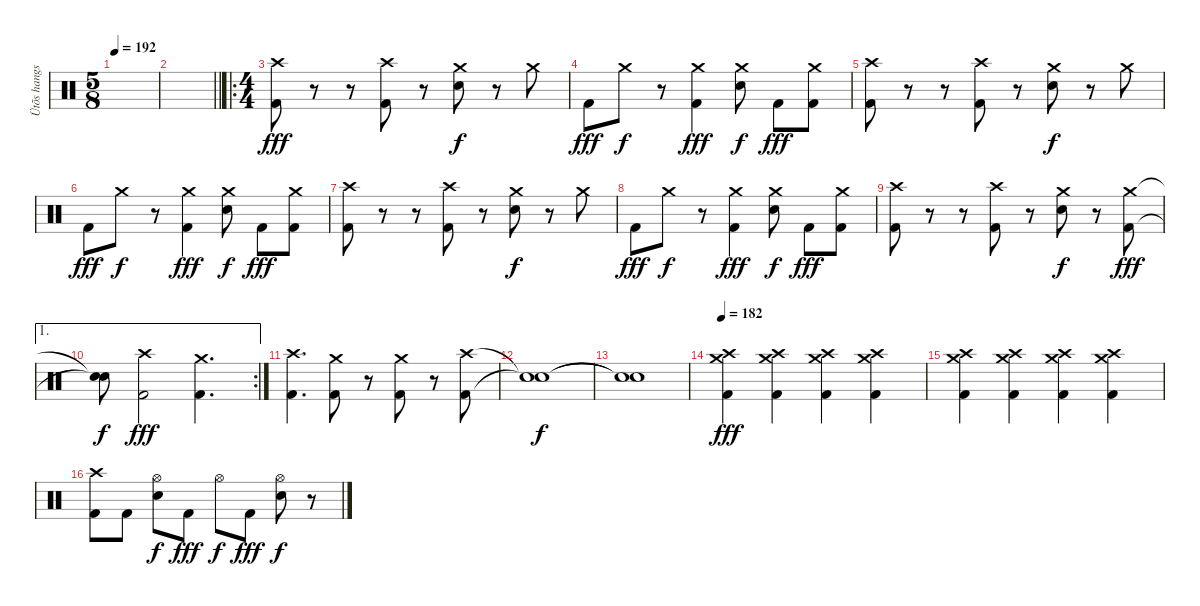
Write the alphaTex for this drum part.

\track ("Ütõs hangszer" "Ütõs hangs") {instrument percussion}
\staff {score}
\articulation defaults
\ts (5 8)
\tempo 192
\clef neutral
\ks c
|
\barLineRight lightlight
|
\ro
\ts (4 4)
("Crash high (hit)" "Kick (hit) 2").8{dy fff} r.8 r.8 ("Crash high (hit)" "Kick (hit) 2").8 r.8 ("Crash medium (hit)" "Electric Snare (hit)").8{dy f} r.8 "Crash medium (hit)".8 |
"Kick (hit) 2".8{dy fff} "Crash medium (hit)".8{dy f} r.8 ("Crash medium (hit)" "Kick (hit) 2").4{dy fff} ("Crash medium (hit)" "Electric Snare (hit)").8{dy f} "Kick (hit) 2".8{dy fff} ("Crash medium (hit)" "Kick (hit) 2").8 |
("Crash high (hit)" "Kick (hit) 2").8 r.8 r.8 ("Crash high (hit)" "Kick (hit) 2").8 r.8 ("Crash medium (hit)" "Electric Snare (hit)").8{dy f} r.8 "Crash medium (hit)".8 |
"Kick (hit) 2".8{dy fff} "Crash medium (hit)".8{dy f} r.8 ("Crash medium (hit)" "Kick (hit) 2").4{dy fff} ("Crash medium (hit)" "Electric Snare (hit)").8{dy f} "Kick (hit) 2".8{dy fff} ("Crash medium (hit)" "Kick (hit) 2").8 |
("Crash high (hit)" "Kick (hit) 2").8 r.8 r.8 ("Crash high (hit)" "Kick (hit) 2").8 r.8 ("Crash medium (hit)" "Electric Snare (hit)").8{dy f} r.8 "Crash medium (hit)".8 |
"Kick (hit) 2".8{dy fff} "Crash medium (hit)".8{dy f} r.8 ("Crash medium (hit)" "Kick (hit) 2").4{dy fff} ("Crash medium (hit)" "Electric Snare (hit)").8{dy f} "Kick (hit) 2".8{dy fff} ("Crash medium (hit)" "Kick (hit) 2").8 |
("Crash high (hit)" "Kick (hit) 2").8 r.8 r.8 ("Crash high (hit)" "Kick (hit) 2").8 r.8 ("Crash medium (hit)" "Electric Snare (hit)").8{dy f} r.8 ("Crash medium (hit)" "Kick (hit) 2").8{dy fff} |
\ae 1
\rc 2
("Snare (hit)"{t} "Snare (hit)"{t}).8{dy f} ("Crash high (hit)" "Kick (hit) 2").2{dy fff} ("Crash medium (hit)" "Kick (hit) 2").4{d} |
("Crash high (hit)" "Kick (hit) 2").4{d} ("Crash medium (hit)" "Kick (hit) 2").8 r.8 ("Crash medium (hit)" "Kick (hit) 2").8 r.8 ("Crash high (hit)" "Kick (hit) 2").8 |
("Snare (hit)"{t} "Snare (hit)"{t}).1{dy f} |
("Snare (hit)"{t} "Snare (hit)"{t}).1 |
\tempo 182
("Crash high (hit)" "Crash medium (hit)" "Kick (hit) 2").4{dy fff} ("Crash high (hit)" "Crash medium (hit)" "Kick (hit) 2").4 ("Crash high (hit)" "Crash medium (hit)" "Kick (hit) 2").4 ("Crash high (hit)" "Crash medium (hit)" "Kick (hit) 2").4 |
("Crash high (hit)" "Crash medium (hit)" "Kick (hit) 2").4 ("Crash high (hit)" "Crash medium (hit)" "Kick (hit) 2").4 ("Crash high (hit)" "Crash medium (hit)" "Kick (hit) 2").4 ("Crash high (hit)" "Crash medium (hit)" "Kick (hit) 2").4 |
("Crash high (hit)" "Kick (hit) 2").8 "Kick (hit) 2".8 ("Hi-Hat (open)" "Electric Snare (hit)").8{dy f} "Kick (hit) 2".8{dy fff} "Hi-Hat (open)".8{dy f} "Kick (hit) 2".8{dy fff} ("Hi-Hat (open)" "Electric Snare (hit)").8{dy f} r.8
